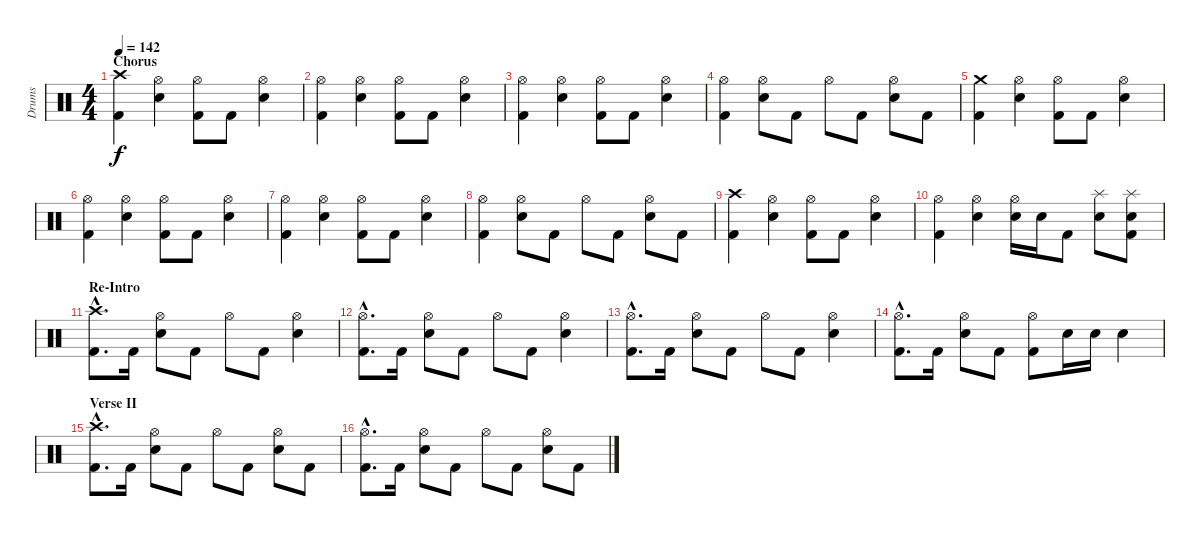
\track ("Drums" "Drums") {instrument percussion}
\staff {score}
\articulation defaults
\ts (4 4)
\section ("" "Chorus ")
\tempo 142
\clef neutral
\ks c
("Crash high (hit)" "Kick (hit) 2").4{dy f} ("Hi-Hat (open)" "Electric Snare (hit)").4 ("Hi-Hat (open)" "Kick (hit) 2").8 "Kick (hit) 2".8 ("Hi-Hat (open)" "Electric Snare (hit)").4 |
("Hi-Hat (open)" "Kick (hit) 2").4 ("Hi-Hat (open)" "Electric Snare (hit)").4 ("Hi-Hat (open)" "Kick (hit) 2").8 "Kick (hit) 2".8 ("Hi-Hat (open)" "Electric Snare (hit)").4 |
("Hi-Hat (open)" "Kick (hit) 2").4 ("Hi-Hat (open)" "Electric Snare (hit)").4 ("Hi-Hat (open)" "Kick (hit) 2").8 "Kick (hit) 2".8 ("Hi-Hat (open)" "Electric Snare (hit)").4 |
("Hi-Hat (open)" "Kick (hit) 2").4 ("Hi-Hat (open)" "Electric Snare (hit)").8 "Kick (hit) 2".8 "Hi-Hat (open)".8 "Kick (hit) 2".8 ("Hi-Hat (open)" "Electric Snare (hit)").8 "Kick (hit) 2".8 |
("Crash medium (hit)" "Kick (hit) 2").4 ("Hi-Hat (open)" "Electric Snare (hit)").4 ("Hi-Hat (open)" "Kick (hit) 2").8 "Kick (hit) 2".8 ("Hi-Hat (open)" "Electric Snare (hit)").4 |
("Hi-Hat (open)" "Kick (hit) 2").4 ("Hi-Hat (open)" "Electric Snare (hit)").4 ("Hi-Hat (open)" "Kick (hit) 2").8 "Kick (hit) 2".8 ("Hi-Hat (open)" "Electric Snare (hit)").4 |
("Hi-Hat (open)" "Kick (hit) 2").4 ("Hi-Hat (open)" "Electric Snare (hit)").4 ("Hi-Hat (open)" "Kick (hit) 2").8 "Kick (hit) 2".8 ("Hi-Hat (open)" "Electric Snare (hit)").4 |
("Hi-Hat (open)" "Kick (hit) 2").4 ("Hi-Hat (open)" "Electric Snare (hit)").8 "Kick (hit) 2".8 "Hi-Hat (open)".8 "Kick (hit) 2".8 ("Hi-Hat (open)" "Electric Snare (hit)").8 "Kick (hit) 2".8 |
("Crash high (hit)" "Kick (hit) 2").4 ("Hi-Hat (open)" "Electric Snare (hit)").4 ("Hi-Hat (open)" "Kick (hit) 2").8 "Kick (hit) 2".8 ("Hi-Hat (open)" "Electric Snare (hit)").4 |
("Hi-Hat (open)" "Kick (hit) 2").4 ("Hi-Hat (open)" "Electric Snare (hit)").4 ("Hi-Hat (open)" "Electric Snare (hit)").16 "Electric Snare (hit)".16 "Kick (hit) 2".8 ("Splash (hit)" "Electric Snare (hit)").8 ("Splash (hit)" "Electric Snare (hit)" "Kick (hit) 2").8 |
\section ("" "Re-Intro")
("Crash high (hit)"{hac} "Kick (hit) 2"{hac}).8{d} "Kick (hit) 2".16 ("Hi-Hat (open)" "Electric Snare (hit)").8 "Kick (hit) 2".8 "Hi-Hat (open)".8 "Kick (hit) 2".8 ("Hi-Hat (open)" "Electric Snare (hit)").4 |
("Hi-Hat (open)"{hac} "Kick (hit) 2"{hac}).8{d} "Kick (hit) 2".16 ("Hi-Hat (open)" "Electric Snare (hit)").8 "Kick (hit) 2".8 "Hi-Hat (open)".8 "Kick (hit) 2".8 ("Hi-Hat (open)" "Electric Snare (hit)").4 |
("Hi-Hat (open)"{hac} "Kick (hit) 2"{hac}).8{d} "Kick (hit) 2".16 ("Hi-Hat (open)" "Electric Snare (hit)").8 "Kick (hit) 2".8 "Hi-Hat (open)".8 "Kick (hit) 2".8 ("Hi-Hat (open)" "Electric Snare (hit)").4 |
("Hi-Hat (open)"{hac} "Kick (hit) 2"{hac}).8{d} "Kick (hit) 2".16 ("Hi-Hat (open)" "Electric Snare (hit)").8 "Kick (hit) 2".8 ("Hi-Hat (open)" "Kick (hit) 2").8 "Electric Snare (hit)".16 "Electric Snare (hit)".16 "Electric Snare (hit)".4 |
\section ("" "Verse II")
("Crash high (hit)"{hac} "Kick (hit) 2"{hac}).8{d} "Kick (hit) 2".16 ("Hi-Hat (open)" "Electric Snare (hit)").8 "Kick (hit) 2".8 "Hi-Hat (open)".8 "Kick (hit) 2".8 ("Hi-Hat (open)" "Electric Snare (hit)").8 "Kick (hit) 2".8 |
("Hi-Hat (open)"{hac} "Kick (hit) 2"{hac}).8{d} "Kick (hit) 2".16 ("Hi-Hat (open)" "Electric Snare (hit)").8 "Kick (hit) 2".8 "Hi-Hat (open)".8 "Kick (hit) 2".8 ("Hi-Hat (open)" "Electric Snare (hit)").8 "Kick (hit) 2".8
